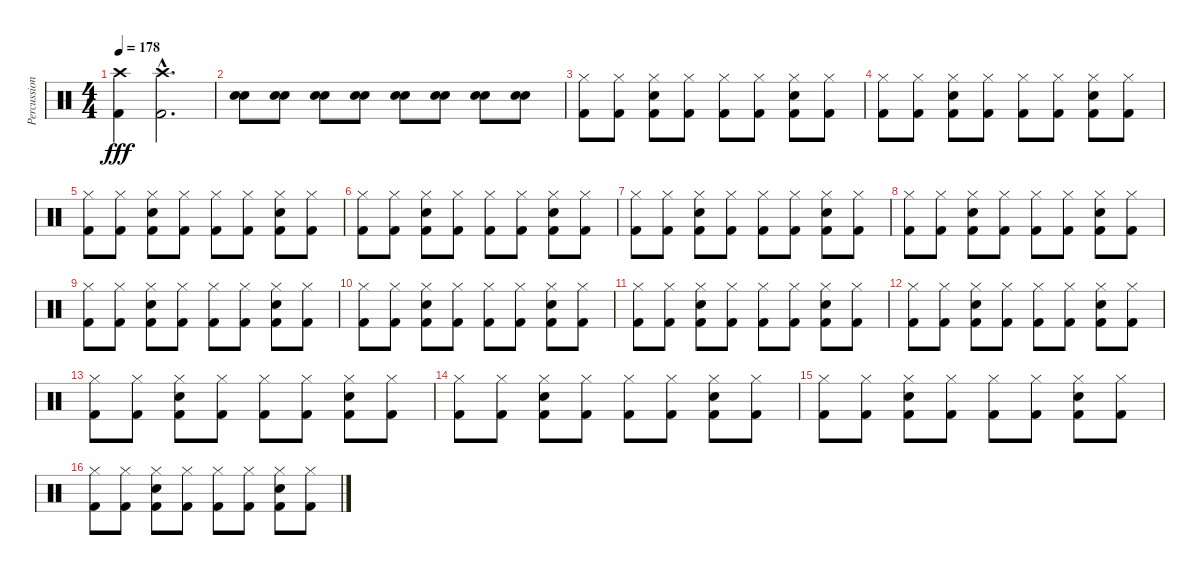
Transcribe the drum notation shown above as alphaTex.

\track ("Percussion" "Percussion") {instrument percussion}
\staff {score}
\articulation defaults
\ts (4 4)
\tempo 178
\clef neutral
\ks c
("Crash high (hit)" "Kick (hit) 2").4{dy fff} ("Crash high (hit)"{hac} "Kick (hit) 2"{hac}).2{d} |
("Electric Snare (hit)" "Snare (hit) 2").8 ("Electric Snare (hit)" "Snare (hit) 2").8 ("Electric Snare (hit)" "Snare (hit) 2").8 ("Electric Snare (hit)" "Snare (hit) 2").8 ("Electric Snare (hit)" "Snare (hit) 2").8 ("Electric Snare (hit)" "Snare (hit) 2").8 ("Electric Snare (hit)" "Snare (hit) 2").8 ("Electric Snare (hit)" "Snare (hit) 2").8 |
("Hi-Hat (closed)" "Kick (hit) 2").8 ("Hi-Hat (closed)" "Kick (hit) 2").8 ("Hi-Hat (closed)" "Kick (hit) 2" "Electric Snare (hit)").8 ("Hi-Hat (closed)" "Kick (hit) 2").8 ("Hi-Hat (closed)" "Kick (hit) 2").8 ("Hi-Hat (closed)" "Kick (hit) 2").8 ("Hi-Hat (closed)" "Kick (hit) 2" "Electric Snare (hit)").8 ("Hi-Hat (closed)" "Kick (hit) 2").8 |
("Hi-Hat (closed)" "Kick (hit) 2").8 ("Hi-Hat (closed)" "Kick (hit) 2").8 ("Hi-Hat (closed)" "Kick (hit) 2" "Electric Snare (hit)").8 ("Hi-Hat (closed)" "Kick (hit) 2").8 ("Hi-Hat (closed)" "Kick (hit) 2").8 ("Hi-Hat (closed)" "Kick (hit) 2").8 ("Hi-Hat (closed)" "Kick (hit) 2" "Electric Snare (hit)").8 ("Hi-Hat (closed)" "Kick (hit) 2").8 |
("Hi-Hat (closed)" "Kick (hit) 2").8 ("Hi-Hat (closed)" "Kick (hit) 2").8 ("Hi-Hat (closed)" "Kick (hit) 2" "Electric Snare (hit)").8 ("Hi-Hat (closed)" "Kick (hit) 2").8 ("Hi-Hat (closed)" "Kick (hit) 2").8 ("Hi-Hat (closed)" "Kick (hit) 2").8 ("Hi-Hat (closed)" "Kick (hit) 2" "Electric Snare (hit)").8 ("Hi-Hat (closed)" "Kick (hit) 2").8 |
("Hi-Hat (closed)" "Kick (hit) 2").8 ("Hi-Hat (closed)" "Kick (hit) 2").8 ("Hi-Hat (closed)" "Kick (hit) 2" "Electric Snare (hit)").8 ("Hi-Hat (closed)" "Kick (hit) 2").8 ("Hi-Hat (closed)" "Kick (hit) 2").8 ("Hi-Hat (closed)" "Kick (hit) 2").8 ("Hi-Hat (closed)" "Kick (hit) 2" "Electric Snare (hit)").8 ("Hi-Hat (closed)" "Kick (hit) 2").8 |
("Hi-Hat (closed)" "Kick (hit) 2").8 ("Hi-Hat (closed)" "Kick (hit) 2").8 ("Hi-Hat (closed)" "Kick (hit) 2" "Electric Snare (hit)").8 ("Hi-Hat (closed)" "Kick (hit) 2").8 ("Hi-Hat (closed)" "Kick (hit) 2").8 ("Hi-Hat (closed)" "Kick (hit) 2").8 ("Hi-Hat (closed)" "Kick (hit) 2" "Electric Snare (hit)").8 ("Hi-Hat (closed)" "Kick (hit) 2").8 |
("Hi-Hat (closed)" "Kick (hit) 2").8 ("Hi-Hat (closed)" "Kick (hit) 2").8 ("Hi-Hat (closed)" "Kick (hit) 2" "Electric Snare (hit)").8 ("Hi-Hat (closed)" "Kick (hit) 2").8 ("Hi-Hat (closed)" "Kick (hit) 2").8 ("Hi-Hat (closed)" "Kick (hit) 2").8 ("Hi-Hat (closed)" "Kick (hit) 2" "Electric Snare (hit)").8 ("Hi-Hat (closed)" "Kick (hit) 2").8 |
("Hi-Hat (closed)" "Kick (hit) 2").8 ("Hi-Hat (closed)" "Kick (hit) 2").8 ("Hi-Hat (closed)" "Kick (hit) 2" "Electric Snare (hit)").8 ("Hi-Hat (closed)" "Kick (hit) 2").8 ("Hi-Hat (closed)" "Kick (hit) 2").8 ("Hi-Hat (closed)" "Kick (hit) 2").8 ("Hi-Hat (closed)" "Kick (hit) 2" "Electric Snare (hit)").8 ("Hi-Hat (closed)" "Kick (hit) 2").8 |
("Hi-Hat (closed)" "Kick (hit) 2").8 ("Hi-Hat (closed)" "Kick (hit) 2").8 ("Hi-Hat (closed)" "Kick (hit) 2" "Electric Snare (hit)").8 ("Hi-Hat (closed)" "Kick (hit) 2").8 ("Hi-Hat (closed)" "Kick (hit) 2").8 ("Hi-Hat (closed)" "Kick (hit) 2").8 ("Hi-Hat (closed)" "Kick (hit) 2" "Electric Snare (hit)").8 ("Hi-Hat (closed)" "Kick (hit) 2").8 |
("Hi-Hat (closed)" "Kick (hit) 2").8 ("Hi-Hat (closed)" "Kick (hit) 2").8 ("Hi-Hat (closed)" "Kick (hit) 2" "Electric Snare (hit)").8 ("Hi-Hat (closed)" "Kick (hit) 2").8 ("Hi-Hat (closed)" "Kick (hit) 2").8 ("Hi-Hat (closed)" "Kick (hit) 2").8 ("Hi-Hat (closed)" "Kick (hit) 2" "Electric Snare (hit)").8 ("Hi-Hat (closed)" "Kick (hit) 2").8 |
("Hi-Hat (closed)" "Kick (hit) 2").8 ("Hi-Hat (closed)" "Kick (hit) 2").8 ("Hi-Hat (closed)" "Kick (hit) 2" "Electric Snare (hit)").8 ("Hi-Hat (closed)" "Kick (hit) 2").8 ("Hi-Hat (closed)" "Kick (hit) 2").8 ("Hi-Hat (closed)" "Kick (hit) 2").8 ("Hi-Hat (closed)" "Kick (hit) 2" "Electric Snare (hit)").8 ("Hi-Hat (closed)" "Kick (hit) 2").8 |
("Hi-Hat (closed)" "Kick (hit) 2").8 ("Hi-Hat (closed)" "Kick (hit) 2").8 ("Hi-Hat (closed)" "Kick (hit) 2" "Electric Snare (hit)").8 ("Hi-Hat (closed)" "Kick (hit) 2").8 ("Hi-Hat (closed)" "Kick (hit) 2").8 ("Hi-Hat (closed)" "Kick (hit) 2").8 ("Hi-Hat (closed)" "Kick (hit) 2" "Electric Snare (hit)").8 ("Hi-Hat (closed)" "Kick (hit) 2").8 |
("Hi-Hat (closed)" "Kick (hit) 2").8 ("Hi-Hat (closed)" "Kick (hit) 2").8 ("Hi-Hat (closed)" "Kick (hit) 2" "Electric Snare (hit)").8 ("Hi-Hat (closed)" "Kick (hit) 2").8 ("Hi-Hat (closed)" "Kick (hit) 2").8 ("Hi-Hat (closed)" "Kick (hit) 2").8 ("Hi-Hat (closed)" "Kick (hit) 2" "Electric Snare (hit)").8 ("Hi-Hat (closed)" "Kick (hit) 2").8 |
("Hi-Hat (closed)" "Kick (hit) 2").8 ("Hi-Hat (closed)" "Kick (hit) 2").8 ("Hi-Hat (closed)" "Kick (hit) 2" "Electric Snare (hit)").8 ("Hi-Hat (closed)" "Kick (hit) 2").8 ("Hi-Hat (closed)" "Kick (hit) 2").8 ("Hi-Hat (closed)" "Kick (hit) 2").8 ("Hi-Hat (closed)" "Kick (hit) 2" "Electric Snare (hit)").8 ("Hi-Hat (closed)" "Kick (hit) 2").8 |
("Hi-Hat (closed)" "Kick (hit) 2").8 ("Hi-Hat (closed)" "Kick (hit) 2").8 ("Hi-Hat (closed)" "Kick (hit) 2" "Electric Snare (hit)").8 ("Hi-Hat (closed)" "Kick (hit) 2").8 ("Hi-Hat (closed)" "Kick (hit) 2").8 ("Hi-Hat (closed)" "Kick (hit) 2").8 ("Hi-Hat (closed)" "Kick (hit) 2" "Electric Snare (hit)").8 ("Hi-Hat (closed)" "Kick (hit) 2").8
